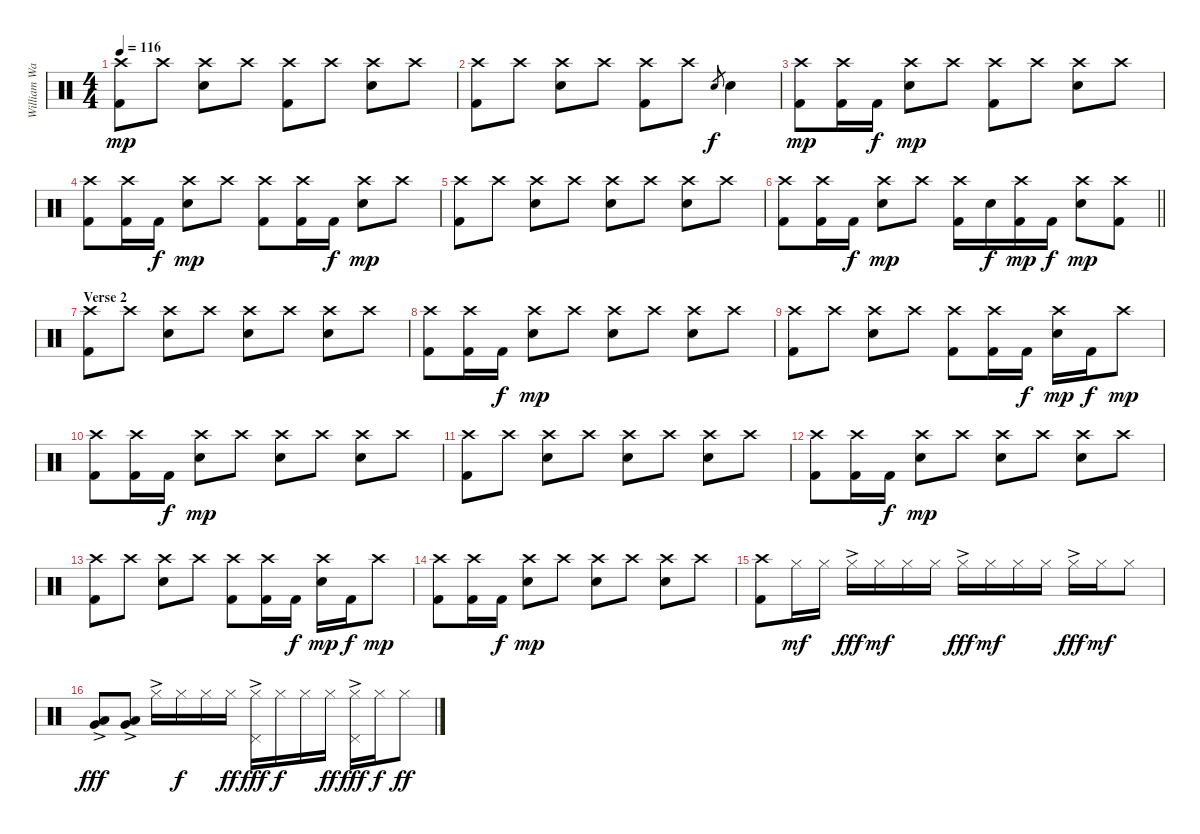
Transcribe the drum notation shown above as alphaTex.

\track ("William Ward" "William Wa") {instrument percussion}
\staff {score}
\articulation defaults
\ts (4 4)
\tempo 116
\clef neutral
\ks c
("Crash high (hit)" "Kick (hit) 2").8{dy mp} "Crash high (hit)".8 ("Crash high (hit)" "Snare (hit) 2").8 "Crash high (hit)".8 ("Crash high (hit)" "Kick (hit) 2").8 "Crash high (hit)".8 ("Crash high (hit)" "Snare (hit) 2").8 "Crash high (hit)".8 |
("Crash high (hit)" "Kick (hit) 2").8 "Crash high (hit)".8 ("Crash high (hit)" "Snare (hit) 2").8 "Crash high (hit)".8 ("Crash high (hit)" "Kick (hit) 2").8 "Crash high (hit)".8 "Snare (hit) 2".8{gr dy f} "Snare (hit) 2".4 |
("Crash high (hit)" "Kick (hit) 2").8{dy mp} ("Crash high (hit)" "Kick (hit) 2").16 "Kick (hit) 2".16{dy f} ("Crash high (hit)" "Snare (hit) 2").8{dy mp} "Crash high (hit)".8 ("Crash high (hit)" "Kick (hit) 2").8 "Crash high (hit)".8 ("Crash high (hit)" "Snare (hit) 2").8 "Crash high (hit)".8 |
("Crash high (hit)" "Kick (hit) 2").8 ("Crash high (hit)" "Kick (hit) 2").16 "Kick (hit) 2".16{dy f} ("Crash high (hit)" "Snare (hit) 2").8{dy mp} "Crash high (hit)".8 ("Crash high (hit)" "Kick (hit) 2").8 ("Crash high (hit)" "Kick (hit) 2").16 "Kick (hit) 2".16{dy f} ("Crash high (hit)" "Snare (hit) 2").8{dy mp} "Crash high (hit)".8 |
("Crash high (hit)" "Kick (hit) 2").8 "Crash high (hit)".8 ("Crash high (hit)" "Snare (hit) 2").8 "Crash high (hit)".8 ("Crash high (hit)" "Snare (hit) 2").8 "Crash high (hit)".8 ("Crash high (hit)" "Snare (hit) 2").8 "Crash high (hit)".8 |
\barLineRight lightlight
("Crash high (hit)" "Kick (hit) 2").8 ("Crash high (hit)" "Kick (hit) 2").16 "Kick (hit) 2".16{dy f} ("Crash high (hit)" "Snare (hit) 2").8{dy mp} "Crash high (hit)".8 ("Crash high (hit)" "Kick (hit) 2").16 "Snare (hit) 2".16{dy f} ("Crash high (hit)" "Kick (hit) 2").16{dy mp} "Kick (hit) 2".16{dy f} ("Crash high (hit)" "Snare (hit) 2").8{dy mp} ("Crash high (hit)" "Kick (hit) 2").8 |
\section ("" "Verse 2")
("Crash high (hit)" "Kick (hit) 2").8 "Crash high (hit)".8 ("Crash high (hit)" "Snare (hit) 2").8 "Crash high (hit)".8 ("Crash high (hit)" "Snare (hit) 2").8 "Crash high (hit)".8 ("Crash high (hit)" "Snare (hit) 2").8 "Crash high (hit)".8 |
("Crash high (hit)" "Kick (hit) 2").8 ("Crash high (hit)" "Kick (hit) 2").16 "Kick (hit) 2".16{dy f} ("Crash high (hit)" "Snare (hit) 2").8{dy mp} "Crash high (hit)".8 ("Crash high (hit)" "Snare (hit) 2").8 "Crash high (hit)".8 ("Crash high (hit)" "Snare (hit) 2").8 "Crash high (hit)".8 |
("Crash high (hit)" "Kick (hit) 2").8 "Crash high (hit)".8 ("Crash high (hit)" "Snare (hit) 2").8 "Crash high (hit)".8 ("Crash high (hit)" "Kick (hit) 2").8 ("Crash high (hit)" "Kick (hit) 2").16 "Kick (hit) 2".16{dy f} ("Crash high (hit)" "Snare (hit) 2").16{dy mp} "Kick (hit) 2".16{dy f} "Crash high (hit)".8{dy mp} |
("Crash high (hit)" "Kick (hit) 2").8 ("Crash high (hit)" "Kick (hit) 2").16 "Kick (hit) 2".16{dy f} ("Crash high (hit)" "Snare (hit) 2").8{dy mp} "Crash high (hit)".8 ("Crash high (hit)" "Snare (hit) 2").8 "Crash high (hit)".8 ("Crash high (hit)" "Snare (hit) 2").8 "Crash high (hit)".8 |
("Crash high (hit)" "Kick (hit) 2").8 "Crash high (hit)".8 ("Crash high (hit)" "Snare (hit) 2").8 "Crash high (hit)".8 ("Crash high (hit)" "Snare (hit) 2").8 "Crash high (hit)".8 ("Crash high (hit)" "Snare (hit) 2").8 "Crash high (hit)".8 |
("Crash high (hit)" "Kick (hit) 2").8 ("Crash high (hit)" "Kick (hit) 2").16 "Kick (hit) 2".16{dy f} ("Crash high (hit)" "Snare (hit) 2").8{dy mp} "Crash high (hit)".8 ("Crash high (hit)" "Snare (hit) 2").8 "Crash high (hit)".8 ("Crash high (hit)" "Snare (hit) 2").8 "Crash high (hit)".8 |
("Crash high (hit)" "Kick (hit) 2").8 "Crash high (hit)".8 ("Crash high (hit)" "Snare (hit) 2").8 "Crash high (hit)".8 ("Crash high (hit)" "Kick (hit) 2").8 ("Crash high (hit)" "Kick (hit) 2").16 "Kick (hit) 2".16{dy f} ("Crash high (hit)" "Snare (hit) 2").16{dy mp} "Kick (hit) 2".16{dy f} "Crash high (hit)".8{dy mp} |
("Crash high (hit)" "Kick (hit) 2").8 ("Crash high (hit)" "Kick (hit) 2").16 "Kick (hit) 2".16{dy f} ("Crash high (hit)" "Snare (hit) 2").8{dy mp} "Crash high (hit)".8 ("Crash high (hit)" "Snare (hit) 2").8 "Crash high (hit)".8 ("Crash high (hit)" "Snare (hit) 2").8 "Crash high (hit)".8 |
("Crash high (hit)" "Kick (hit) 2").8 "Hi-Hat (closed)".16{dy mf} "Hi-Hat (closed)".16 "Hi-Hat (closed)"{ac}.16{dy fff} "Hi-Hat (closed)".16{dy mf} "Hi-Hat (closed)".16 "Hi-Hat (closed)".16 "Hi-Hat (closed)"{ac}.16{dy fff} "Hi-Hat (closed)".16{dy mf} "Hi-Hat (closed)".16 "Hi-Hat (closed)".16 "Hi-Hat (closed)"{ac}.16{dy fff} "Hi-Hat (closed)".16{dy mf} "Hi-Hat (closed)".8 |
("Low Tom (hit)"{ac} "Very Low Tom (hit)"{ac}).8{dy fff} ("Low Tom (hit)"{ac} "Very Low Tom (hit)"{ac}).8 "Hi-Hat (closed)"{ac}.16 "Hi-Hat (closed)".16{dy f} "Hi-Hat (closed)".16 "Hi-Hat (closed)".16{dy ff} ("Hi-Hat (closed)"{ac} "Pedal Hi-Hat (hit)"{ac}).16{dy fff} "Hi-Hat (closed)".16{dy f} "Hi-Hat (closed)".16 "Hi-Hat (closed)".16{dy ff} ("Hi-Hat (closed)"{ac} "Pedal Hi-Hat (hit)"{ac}).16{dy fff} "Hi-Hat (closed)".16{dy f} "Hi-Hat (closed)".8{dy ff}
